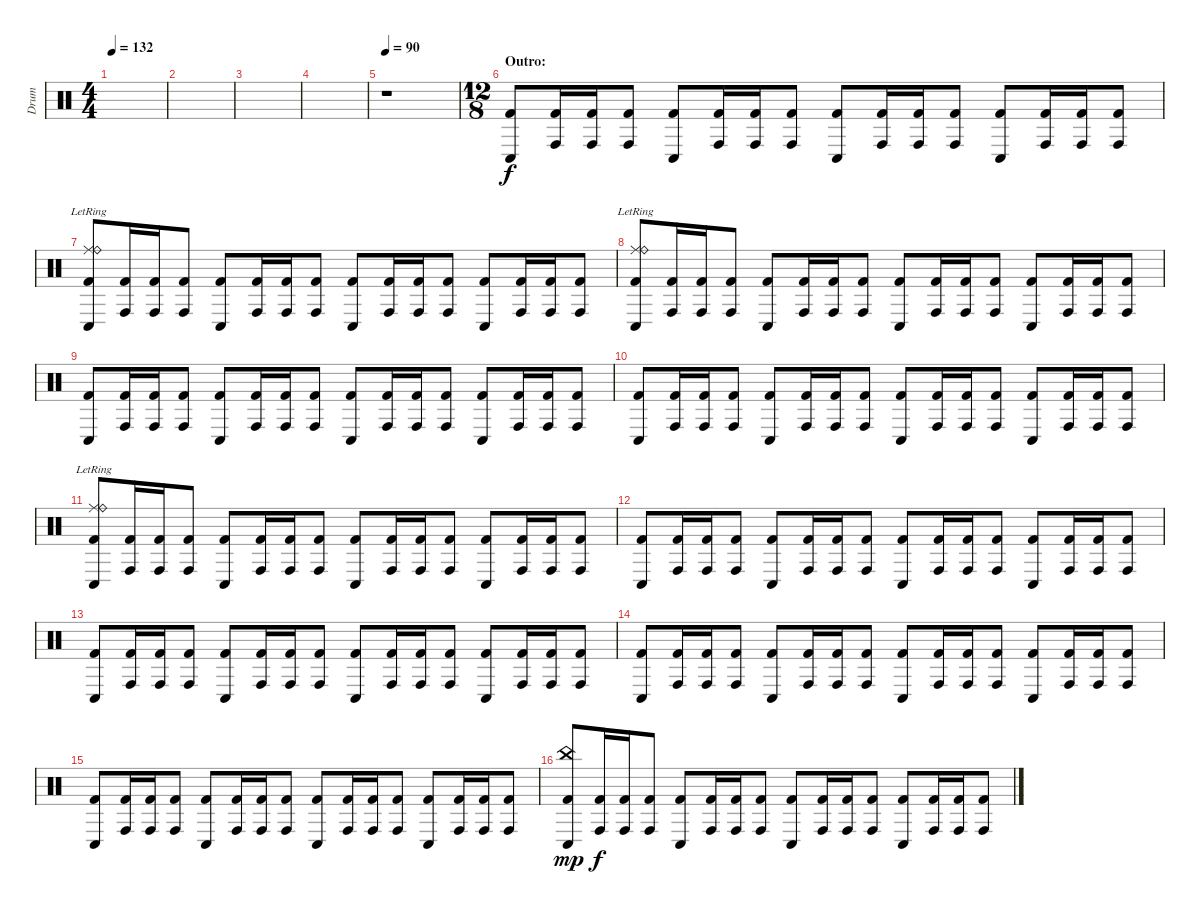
\track ("Drum" "Drum") {instrument percussion}
\staff {score}
\articulation defaults
\ts (4 4)
\tempo 132
\clef neutral
\ks c
|
|
|
|
\tempo 90
r.1 |
\ts (12 8)
\section ("" "Outro:")
("Kick (hit) 2" "Conga low (hit)").8 ("Kick (hit) 2" "Conga high (hit)").16 ("Kick (hit) 2" "Conga high (hit)").16 ("Kick (hit) 2" "Conga high (hit)").8 ("Kick (hit) 2" "Conga low (hit)").8 ("Kick (hit) 2" "Conga high (hit)").16 ("Kick (hit) 2" "Conga high (hit)").16 ("Kick (hit) 2" "Conga high (hit)").8 ("Kick (hit) 2" "Conga low (hit)").8 ("Kick (hit) 2" "Conga high (hit)").16 ("Kick (hit) 2" "Conga high (hit)").16 ("Kick (hit) 2" "Conga high (hit)").8 ("Kick (hit) 2" "Conga low (hit)").8 ("Kick (hit) 2" "Conga high (hit)").16 ("Kick (hit) 2" "Conga high (hit)").16 ("Kick (hit) 2" "Conga high (hit)").8 |
("Kick (hit) 2" "Conga low (hit)" "Ride (middle)"{lr} "Ride (bell)"{lr}).8 ("Kick (hit) 2" "Conga high (hit)").16 ("Kick (hit) 2" "Conga high (hit)").16 ("Kick (hit) 2" "Conga high (hit)").8 ("Kick (hit) 2" "Conga low (hit)").8 ("Kick (hit) 2" "Conga high (hit)").16 ("Kick (hit) 2" "Conga high (hit)").16 ("Kick (hit) 2" "Conga high (hit)").8 ("Kick (hit) 2" "Conga low (hit)").8 ("Kick (hit) 2" "Conga high (hit)").16 ("Kick (hit) 2" "Conga high (hit)").16 ("Kick (hit) 2" "Conga high (hit)").8 ("Kick (hit) 2" "Conga low (hit)").8 ("Kick (hit) 2" "Conga high (hit)").16 ("Kick (hit) 2" "Conga high (hit)").16 ("Kick (hit) 2" "Conga high (hit)").8 |
("Kick (hit) 2" "Conga low (hit)" "Ride (middle)"{lr} "Ride (bell)"{lr}).8 ("Kick (hit) 2" "Conga high (hit)").16 ("Kick (hit) 2" "Conga high (hit)").16 ("Kick (hit) 2" "Conga high (hit)").8 ("Kick (hit) 2" "Conga low (hit)").8 ("Kick (hit) 2" "Conga high (hit)").16 ("Kick (hit) 2" "Conga high (hit)").16 ("Kick (hit) 2" "Conga high (hit)").8 ("Kick (hit) 2" "Conga low (hit)").8 ("Kick (hit) 2" "Conga high (hit)").16 ("Kick (hit) 2" "Conga high (hit)").16 ("Kick (hit) 2" "Conga high (hit)").8 ("Kick (hit) 2" "Conga low (hit)").8 ("Kick (hit) 2" "Conga high (hit)").16 ("Kick (hit) 2" "Conga high (hit)").16 ("Kick (hit) 2" "Conga high (hit)").8 |
("Kick (hit) 2" "Conga low (hit)").8 ("Kick (hit) 2" "Conga high (hit)").16 ("Kick (hit) 2" "Conga high (hit)").16 ("Kick (hit) 2" "Conga high (hit)").8 ("Kick (hit) 2" "Conga low (hit)").8 ("Kick (hit) 2" "Conga high (hit)").16 ("Kick (hit) 2" "Conga high (hit)").16 ("Kick (hit) 2" "Conga high (hit)").8 ("Kick (hit) 2" "Conga low (hit)").8 ("Kick (hit) 2" "Conga high (hit)").16 ("Kick (hit) 2" "Conga high (hit)").16 ("Kick (hit) 2" "Conga high (hit)").8 ("Kick (hit) 2" "Conga low (hit)").8 ("Kick (hit) 2" "Conga high (hit)").16 ("Kick (hit) 2" "Conga high (hit)").16 ("Kick (hit) 2" "Conga high (hit)").8 |
("Kick (hit) 2" "Conga low (hit)").8 ("Kick (hit) 2" "Conga high (hit)").16 ("Kick (hit) 2" "Conga high (hit)").16 ("Kick (hit) 2" "Conga high (hit)").8 ("Kick (hit) 2" "Conga low (hit)").8 ("Kick (hit) 2" "Conga high (hit)").16 ("Kick (hit) 2" "Conga high (hit)").16 ("Kick (hit) 2" "Conga high (hit)").8 ("Kick (hit) 2" "Conga low (hit)").8 ("Kick (hit) 2" "Conga high (hit)").16 ("Kick (hit) 2" "Conga high (hit)").16 ("Kick (hit) 2" "Conga high (hit)").8 ("Kick (hit) 2" "Conga low (hit)").8 ("Kick (hit) 2" "Conga high (hit)").16 ("Kick (hit) 2" "Conga high (hit)").16 ("Kick (hit) 2" "Conga high (hit)").8 |
("Kick (hit) 2" "Conga low (hit)" "Ride (middle)"{lr} "Ride (bell)"{lr}).8 ("Kick (hit) 2" "Conga high (hit)").16 ("Kick (hit) 2" "Conga high (hit)").16 ("Kick (hit) 2" "Conga high (hit)").8 ("Kick (hit) 2" "Conga low (hit)").8 ("Kick (hit) 2" "Conga high (hit)").16 ("Kick (hit) 2" "Conga high (hit)").16 ("Kick (hit) 2" "Conga high (hit)").8 ("Kick (hit) 2" "Conga low (hit)").8 ("Kick (hit) 2" "Conga high (hit)").16 ("Kick (hit) 2" "Conga high (hit)").16 ("Kick (hit) 2" "Conga high (hit)").8 ("Kick (hit) 2" "Conga low (hit)").8 ("Kick (hit) 2" "Conga high (hit)").16 ("Kick (hit) 2" "Conga high (hit)").16 ("Kick (hit) 2" "Conga high (hit)").8 |
("Kick (hit) 2" "Conga low (hit)").8 ("Kick (hit) 2" "Conga high (hit)").16 ("Kick (hit) 2" "Conga high (hit)").16 ("Kick (hit) 2" "Conga high (hit)").8 ("Kick (hit) 2" "Conga low (hit)").8 ("Kick (hit) 2" "Conga high (hit)").16 ("Kick (hit) 2" "Conga high (hit)").16 ("Kick (hit) 2" "Conga high (hit)").8 ("Kick (hit) 2" "Conga low (hit)").8 ("Kick (hit) 2" "Conga high (hit)").16 ("Kick (hit) 2" "Conga high (hit)").16 ("Kick (hit) 2" "Conga high (hit)").8 ("Kick (hit) 2" "Conga low (hit)").8 ("Kick (hit) 2" "Conga high (hit)").16 ("Kick (hit) 2" "Conga high (hit)").16 ("Kick (hit) 2" "Conga high (hit)").8 |
("Kick (hit) 2" "Conga low (hit)").8 ("Kick (hit) 2" "Conga high (hit)").16 ("Kick (hit) 2" "Conga high (hit)").16 ("Kick (hit) 2" "Conga high (hit)").8 ("Kick (hit) 2" "Conga low (hit)").8 ("Kick (hit) 2" "Conga high (hit)").16 ("Kick (hit) 2" "Conga high (hit)").16 ("Kick (hit) 2" "Conga high (hit)").8 ("Kick (hit) 2" "Conga low (hit)").8 ("Kick (hit) 2" "Conga high (hit)").16 ("Kick (hit) 2" "Conga high (hit)").16 ("Kick (hit) 2" "Conga high (hit)").8 ("Kick (hit) 2" "Conga low (hit)").8 ("Kick (hit) 2" "Conga high (hit)").16 ("Kick (hit) 2" "Conga high (hit)").16 ("Kick (hit) 2" "Conga high (hit)").8 |
("Kick (hit) 2" "Conga low (hit)").8 ("Kick (hit) 2" "Conga high (hit)").16 ("Kick (hit) 2" "Conga high (hit)").16 ("Kick (hit) 2" "Conga high (hit)").8 ("Kick (hit) 2" "Conga low (hit)").8 ("Kick (hit) 2" "Conga high (hit)").16 ("Kick (hit) 2" "Conga high (hit)").16 ("Kick (hit) 2" "Conga high (hit)").8 ("Kick (hit) 2" "Conga low (hit)").8 ("Kick (hit) 2" "Conga high (hit)").16 ("Kick (hit) 2" "Conga high (hit)").16 ("Kick (hit) 2" "Conga high (hit)").8 ("Kick (hit) 2" "Conga low (hit)").8 ("Kick (hit) 2" "Conga high (hit)").16 ("Kick (hit) 2" "Conga high (hit)").16 ("Kick (hit) 2" "Conga high (hit)").8 |
("Kick (hit) 2" "Conga low (hit)").8 ("Kick (hit) 2" "Conga high (hit)").16 ("Kick (hit) 2" "Conga high (hit)").16 ("Kick (hit) 2" "Conga high (hit)").8 ("Kick (hit) 2" "Conga low (hit)").8 ("Kick (hit) 2" "Conga high (hit)").16 ("Kick (hit) 2" "Conga high (hit)").16 ("Kick (hit) 2" "Conga high (hit)").8 ("Kick (hit) 2" "Conga low (hit)").8 ("Kick (hit) 2" "Conga high (hit)").16 ("Kick (hit) 2" "Conga high (hit)").16 ("Kick (hit) 2" "Conga high (hit)").8 ("Kick (hit) 2" "Conga low (hit)").8 ("Kick (hit) 2" "Conga high (hit)").16 ("Kick (hit) 2" "Conga high (hit)").16 ("Kick (hit) 2" "Conga high (hit)").8 |
("Kick (hit) 2" "Conga low (hit)" "China (hit)").8{dy mp} ("Kick (hit) 2" "Conga high (hit)").16{dy f} ("Kick (hit) 2" "Conga high (hit)").16 ("Kick (hit) 2" "Conga high (hit)").8 ("Kick (hit) 2" "Conga low (hit)").8 ("Kick (hit) 2" "Conga high (hit)").16 ("Kick (hit) 2" "Conga high (hit)").16 ("Kick (hit) 2" "Conga high (hit)").8 ("Kick (hit) 2" "Conga low (hit)").8 ("Kick (hit) 2" "Conga high (hit)").16 ("Kick (hit) 2" "Conga high (hit)").16 ("Kick (hit) 2" "Conga high (hit)").8 ("Kick (hit) 2" "Conga low (hit)").8 ("Kick (hit) 2" "Conga high (hit)").16 ("Kick (hit) 2" "Conga high (hit)").16 ("Kick (hit) 2" "Conga high (hit)").8
